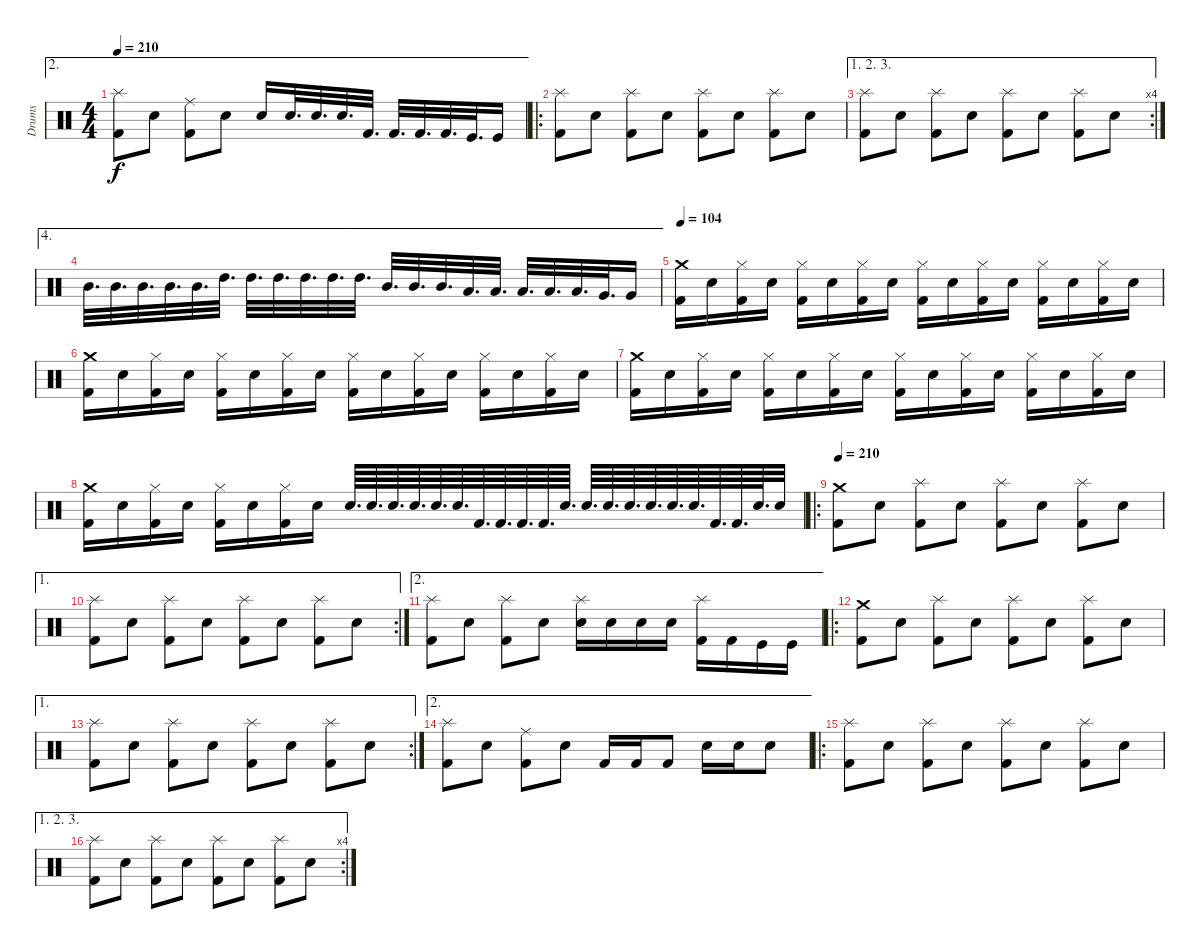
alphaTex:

\track ("Drums" "Drums") {instrument percussion}
\staff {score}
\articulation defaults
\ae 2
\ts (4 4)
\tempo 210
\clef neutral
\ks c
("Splash (hit)" "Kick (hit) 2").8{dy f} "Electric Snare (hit)".8 ("Ride (middle)" "Kick (hit) 2").8 "Electric Snare (hit)".8 "Electric Snare (hit)".16 "Electric Snare (hit)".32{d} "Electric Snare (hit)".32{d} "Electric Snare (hit)".32{d} "Kick (hit) 2".32{d} "Kick (hit) 2".32{d} "Kick (hit) 2".32{d} "Kick (hit) 2".32{d} "Kick (hit)".32{d} "Kick (hit)".16 |
\ro
("Splash (hit)" "Kick (hit) 2").8 "Electric Snare (hit)".8 ("Splash (hit)" "Kick (hit) 2").8 "Electric Snare (hit)".8 ("Splash (hit)" "Kick (hit) 2").8 "Electric Snare (hit)".8 ("Splash (hit)" "Kick (hit) 2").8 "Electric Snare (hit)".8 |
\ae (1 2 3)
\rc 4
("Splash (hit)" "Kick (hit) 2").8 "Electric Snare (hit)".8 ("Splash (hit)" "Kick (hit) 2").8 "Electric Snare (hit)".8 ("Splash (hit)" "Kick (hit) 2").8 "Electric Snare (hit)".8 ("Splash (hit)" "Kick (hit) 2").8 "Electric Snare (hit)".8 |
\ae 4 "Mid Tom (hit)".32{d} "Mid Tom (hit)".32{d} "Mid Tom (hit)".32{d} "Mid Tom (hit)".32{d} "Mid Tom (hit)".32{d} "High Tom (hit)".32{d} "High Tom (hit)".32{d} "High Tom (hit)".32{d} "High Tom (hit)".32{d} "High Tom (hit)".32{d} "High Tom (hit)".32{d} "Mid Tom (hit)".32{d} "Mid Tom (hit)".32{d} "Mid Tom (hit)".32{d} "Low Tom (hit)".32{d} "Low Tom (hit)".32{d} "Low Tom (hit)".32{d} "Low Tom (hit)".32{d} "Low Tom (hit)".32{d} "Very Low Tom (hit)".32{d} "Very Low Tom (hit)".16
|
\tempo 104
("Crash medium (hit)" "Kick (hit) 2").16 "Electric Snare (hit)".16 ("Hi-Hat (closed)" "Kick (hit) 2").16 "Electric Snare (hit)".16 ("Hi-Hat (closed)" "Kick (hit) 2").16 "Electric Snare (hit)".16 ("Hi-Hat (closed)" "Kick (hit) 2").16 "Electric Snare (hit)".16 ("Hi-Hat (closed)" "Kick (hit) 2").16 "Electric Snare (hit)".16 ("Hi-Hat (closed)" "Kick (hit) 2").16 "Electric Snare (hit)".16 ("Hi-Hat (closed)" "Kick (hit) 2").16 "Electric Snare (hit)".16 ("Hi-Hat (closed)" "Kick (hit) 2").16 "Electric Snare (hit)".16 |
("Crash medium (hit)" "Kick (hit) 2").16 "Electric Snare (hit)".16 ("Hi-Hat (closed)" "Kick (hit) 2").16 "Electric Snare (hit)".16 ("Hi-Hat (closed)" "Kick (hit) 2").16 "Electric Snare (hit)".16 ("Hi-Hat (closed)" "Kick (hit) 2").16 "Electric Snare (hit)".16 ("Hi-Hat (closed)" "Kick (hit) 2").16 "Electric Snare (hit)".16 ("Hi-Hat (closed)" "Kick (hit) 2").16 "Electric Snare (hit)".16 ("Hi-Hat (closed)" "Kick (hit) 2").16 "Electric Snare (hit)".16 ("Hi-Hat (closed)" "Kick (hit) 2").16 "Electric Snare (hit)".16 |
("Crash medium (hit)" "Kick (hit) 2").16 "Electric Snare (hit)".16 ("Hi-Hat (closed)" "Kick (hit) 2").16 "Electric Snare (hit)".16 ("Hi-Hat (closed)" "Kick (hit) 2").16 "Electric Snare (hit)".16 ("Hi-Hat (closed)" "Kick (hit) 2").16 "Electric Snare (hit)".16 ("Hi-Hat (closed)" "Kick (hit) 2").16 "Electric Snare (hit)".16 ("Hi-Hat (closed)" "Kick (hit) 2").16 "Electric Snare (hit)".16 ("Hi-Hat (closed)" "Kick (hit) 2").16 "Electric Snare (hit)".16 ("Hi-Hat (closed)" "Kick (hit) 2").16 "Electric Snare (hit)".16 |
("Crash medium (hit)" "Kick (hit) 2").16 "Electric Snare (hit)".16 ("Hi-Hat (closed)" "Kick (hit) 2").16 "Electric Snare (hit)".16 ("Hi-Hat (closed)" "Kick (hit) 2").16 "Electric Snare (hit)".16 ("Hi-Hat (closed)" "Kick (hit) 2").16 "Electric Snare (hit)".16 "Electric Snare (hit)".64{d} "Electric Snare (hit)".64{d} "Electric Snare (hit)".64{d} "Electric Snare (hit)".64{d} "Electric Snare (hit)".64{d} "Electric Snare (hit)".64{d} "Kick (hit) 2".64{d} "Kick (hit) 2".64{d} "Kick (hit) 2".64{d} "Kick (hit) 2".64{d} "Electric Snare (hit)".64{d} "Electric Snare (hit)".64{d} "Electric Snare (hit)".64{d} "Electric Snare (hit)".64{d} "Electric Snare (hit)".64{d} "Electric Snare (hit)".64{d} "Electric Snare (hit)".64{d} "Kick (hit) 2".64{d} "Kick (hit) 2".64{d} "Electric Snare (hit)".64{d} "Electric Snare (hit)".32 |
\ro
\tempo 210
("Crash medium (hit)" "Kick (hit) 2").8 "Electric Snare (hit)".8 ("Splash (hit)" "Kick (hit) 2").8 "Electric Snare (hit)".8 ("Splash (hit)" "Kick (hit) 2").8 "Electric Snare (hit)".8 ("Splash (hit)" "Kick (hit) 2").8 "Electric Snare (hit)".8 |
\ae 1
\rc 2
("Splash (hit)" "Kick (hit) 2").8 "Electric Snare (hit)".8 ("Splash (hit)" "Kick (hit) 2").8 "Electric Snare (hit)".8 ("Splash (hit)" "Kick (hit) 2").8 "Electric Snare (hit)".8 ("Splash (hit)" "Kick (hit) 2").8 "Electric Snare (hit)".8 |
\ae 2
("Splash (hit)" "Kick (hit) 2").8 "Electric Snare (hit)".8 ("Splash (hit)" "Kick (hit) 2").8 "Electric Snare (hit)".8 ("Splash (hit)" "Snare (hit) 2").16 "Snare (hit) 2".16 "Electric Snare (hit)".16 "Electric Snare (hit)".16 ("Splash (hit)" "Kick (hit) 2").16 "Kick (hit) 2".16 "Kick (hit)".16 "Kick (hit)".16 |
\ro
("Crash medium (hit)" "Kick (hit) 2").8 "Electric Snare (hit)".8 ("Splash (hit)" "Kick (hit) 2").8 "Electric Snare (hit)".8 ("Splash (hit)" "Kick (hit) 2").8 "Electric Snare (hit)".8 ("Splash (hit)" "Kick (hit) 2").8 "Electric Snare (hit)".8 |
\ae 1
\rc 2
("Splash (hit)" "Kick (hit) 2").8 "Electric Snare (hit)".8 ("Splash (hit)" "Kick (hit) 2").8 "Electric Snare (hit)".8 ("Splash (hit)" "Kick (hit) 2").8 "Electric Snare (hit)".8 ("Splash (hit)" "Kick (hit) 2").8 "Electric Snare (hit)".8 |
\ae 2
("Splash (hit)" "Kick (hit) 2").8 "Electric Snare (hit)".8 ("Ride (middle)" "Kick (hit) 2").8 "Electric Snare (hit)".8 "Kick (hit) 2".16 "Kick (hit) 2".16 "Kick (hit) 2".8 "Electric Snare (hit)".16 "Electric Snare (hit)".16 "Electric Snare (hit)".8 |
\ro
("Splash (hit)" "Kick (hit) 2").8 "Electric Snare (hit)".8 ("Splash (hit)" "Kick (hit) 2").8 "Electric Snare (hit)".8 ("Splash (hit)" "Kick (hit) 2").8 "Electric Snare (hit)".8 ("Splash (hit)" "Kick (hit) 2").8 "Electric Snare (hit)".8 |
\ae (1 2 3)
\rc 4
("Splash (hit)" "Kick (hit) 2").8 "Electric Snare (hit)".8 ("Splash (hit)" "Kick (hit) 2").8 "Electric Snare (hit)".8 ("Splash (hit)" "Kick (hit) 2").8 "Electric Snare (hit)".8 ("Splash (hit)" "Kick (hit) 2").8 "Electric Snare (hit)".8
